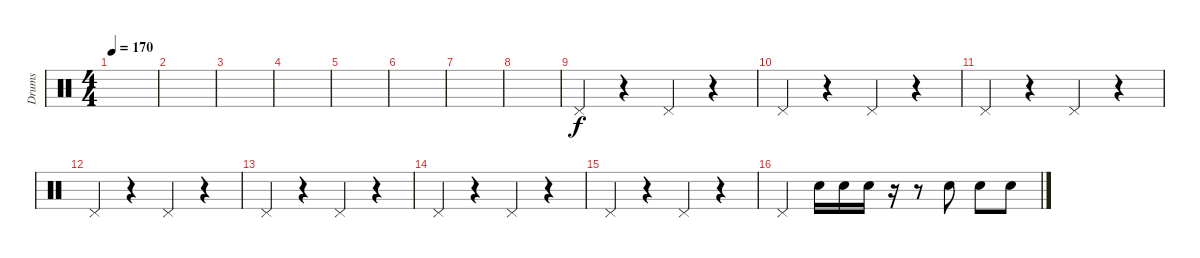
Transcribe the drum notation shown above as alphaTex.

\track ("Drums" "Drums") {instrument percussion}
\staff {score}
\articulation defaults
\ts (4 4)
\tempo 170
\clef neutral
\ks c
|
|
|
|
|
|
|
|
"Pedal Hi-Hat (hit)".4 r.4 "Pedal Hi-Hat (hit)".4 r.4 |
"Pedal Hi-Hat (hit)".4 r.4 "Pedal Hi-Hat (hit)".4 r.4 |
"Pedal Hi-Hat (hit)".4 r.4 "Pedal Hi-Hat (hit)".4 r.4 |
"Pedal Hi-Hat (hit)".4 r.4 "Pedal Hi-Hat (hit)".4 r.4 |
"Pedal Hi-Hat (hit)".4 r.4 "Pedal Hi-Hat (hit)".4 r.4 |
"Pedal Hi-Hat (hit)".4 r.4 "Pedal Hi-Hat (hit)".4 r.4 |
"Pedal Hi-Hat (hit)".4 r.4 "Pedal Hi-Hat (hit)".4 r.4 |
"Pedal Hi-Hat (hit)".4 "Snare (hit) 2".16 "Snare (hit) 2".16 "Snare (hit) 2".16 r.16 r.8 "Snare (hit) 2".8 "Snare (hit) 2".8 "Snare (hit) 2".8
